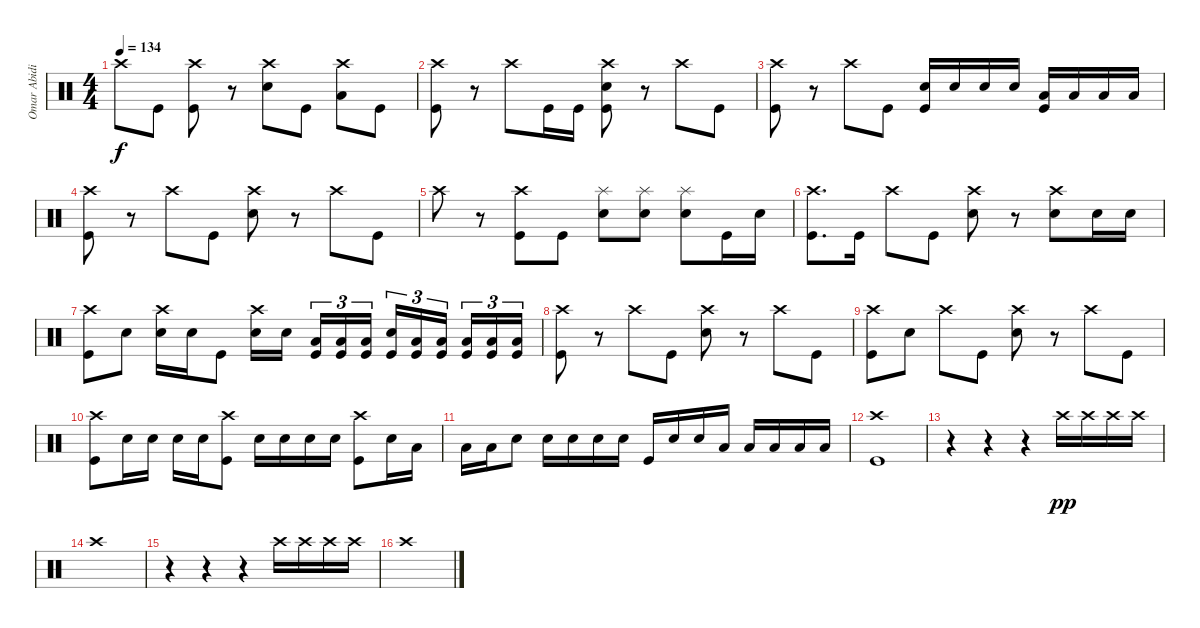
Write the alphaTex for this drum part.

\track ("Omar Abidi" "Omar Abidi") {instrument percussion}
\staff {score}
\articulation defaults
\ts (4 4)
\tempo 134
\clef neutral
\ks c "Crash high (hit)".8{dy f} "Kick (hit)".8
("Crash high (hit)" "Kick (hit)").8 r.8 ("Crash high (hit)" "Snare (hit) 2").8 "Kick (hit)".8 ("Crash high (hit)" "Low Floor Tom (hit)").8 "Kick (hit)".8 |
("Crash high (hit)" "Kick (hit)").8 r.8 "Crash high (hit)".8 "Kick (hit)".16 "Kick (hit)".16 ("Crash high (hit)" "Snare (hit) 2" "Kick (hit)").8 r.8 "Crash high (hit)".8 "Kick (hit)".8 |
("Crash high (hit)" "Kick (hit)").8 r.8 "Crash high (hit)".8 "Kick (hit)".8 ("Snare (hit) 2" "Kick (hit)").16 "Snare (hit) 2".16 "Snare (hit) 2".16 "Snare (hit) 2".16 ("Low Floor Tom (hit)" "Kick (hit)").16 "Low Floor Tom (hit)".16 "Low Floor Tom (hit)".16 "Low Floor Tom (hit)".16 |
("Crash high (hit)" "Kick (hit)").8 r.8 "Crash high (hit)".8 "Kick (hit)".8 ("Crash high (hit)" "Snare (hit) 2").8 r.8 "Crash high (hit)".8 "Kick (hit)".8 |
"Crash high (hit)".8 r.8 ("Crash high (hit)" "Kick (hit)").8 "Kick (hit)".8 ("Splash (hit)" "Snare (hit) 2").8 ("Splash (hit)" "Snare (hit) 2").8 ("Splash (hit)" "Snare (hit) 2").8 "Kick (hit)".16 "Snare (hit) 2".16 |
("Crash high (hit)" "Kick (hit)").8{d} "Kick (hit)".16 "Crash high (hit)".8 "Kick (hit)".8 ("Crash high (hit)" "Snare (hit) 2").8 r.8 ("Crash high (hit)" "Snare (hit) 2").8 "Snare (hit) 2".16 "Snare (hit) 2".16 |
("Crash high (hit)" "Kick (hit)").8 "Snare (hit) 2".8 ("Crash high (hit)" "Snare (hit) 2").16 "Snare (hit) 2".16 "Kick (hit)".8 ("Crash high (hit)" "Snare (hit) 2").16 "Snare (hit) 2".16{beam splitsecondary} ("Low Floor Tom (hit)" "Kick (hit)").16{tu (3 2)} ("Low Floor Tom (hit)" "Kick (hit)").16{tu (3 2)} ("Low Floor Tom (hit)" "Kick (hit)").16{tu (3 2)} ("Snare (hit) 2" "Kick (hit)").16{tu (3 2)} ("Low Floor Tom (hit)" "Kick (hit)").16{tu (3 2)} ("Low Floor Tom (hit)" "Kick (hit)").16{tu (3 2) beam splitsecondary} ("Low Floor Tom (hit)" "Kick (hit)").16{tu (3 2)} ("Low Floor Tom (hit)" "Kick (hit)").16{tu (3 2)} ("Low Floor Tom (hit)" "Kick (hit)").16{tu (3 2)} |
("Crash high (hit)" "Kick (hit)").8 r.8 "Crash high (hit)".8 "Kick (hit)".8 ("Crash high (hit)" "Snare (hit) 2").8 r.8 "Crash high (hit)".8 "Kick (hit)".8 |
("Crash high (hit)" "Kick (hit)").8 "Snare (hit) 2".8 "Crash high (hit)".8 "Kick (hit)".8 ("Crash high (hit)" "Snare (hit) 2").8 r.8 "Crash high (hit)".8 "Kick (hit)".8 |
("Crash high (hit)" "Kick (hit)").8 "Snare (hit) 2".16 "Snare (hit) 2".16 "Snare (hit) 2".16 "Snare (hit) 2".16 ("Crash high (hit)" "Kick (hit)").8 "Snare (hit) 2".16 "Snare (hit) 2".16 "Snare (hit) 2".16 "Snare (hit) 2".16 ("Crash high (hit)" "Kick (hit)").8 "Snare (hit) 2".16 "Low Floor Tom (hit)".16 |
"Low Floor Tom (hit)".16 "Low Floor Tom (hit)".16 "Snare (hit) 2".8 "Snare (hit) 2".16 "Snare (hit) 2".16 "Snare (hit) 2".16 "Snare (hit) 2".16 "Kick (hit)".16 "Snare (hit) 2".16 "Snare (hit) 2".16 "Low Floor Tom (hit)".16 "Low Floor Tom (hit)".16 "Low Floor Tom (hit)".16 "Low Floor Tom (hit)".16 "Low Floor Tom (hit)".16 |
("Crash high (hit)" "Kick (hit)").1 |
r.4 r.4 r.4 "Crash high (hit)".16{dy pp} "Crash high (hit)".16 "Crash high (hit)".16 "Crash high (hit)".16 |
"Crash high (hit)".1 |
r.4 r.4 r.4 "Crash high (hit)".16 "Crash high (hit)".16 "Crash high (hit)".16 "Crash high (hit)".16 |
"Crash high (hit)".1
